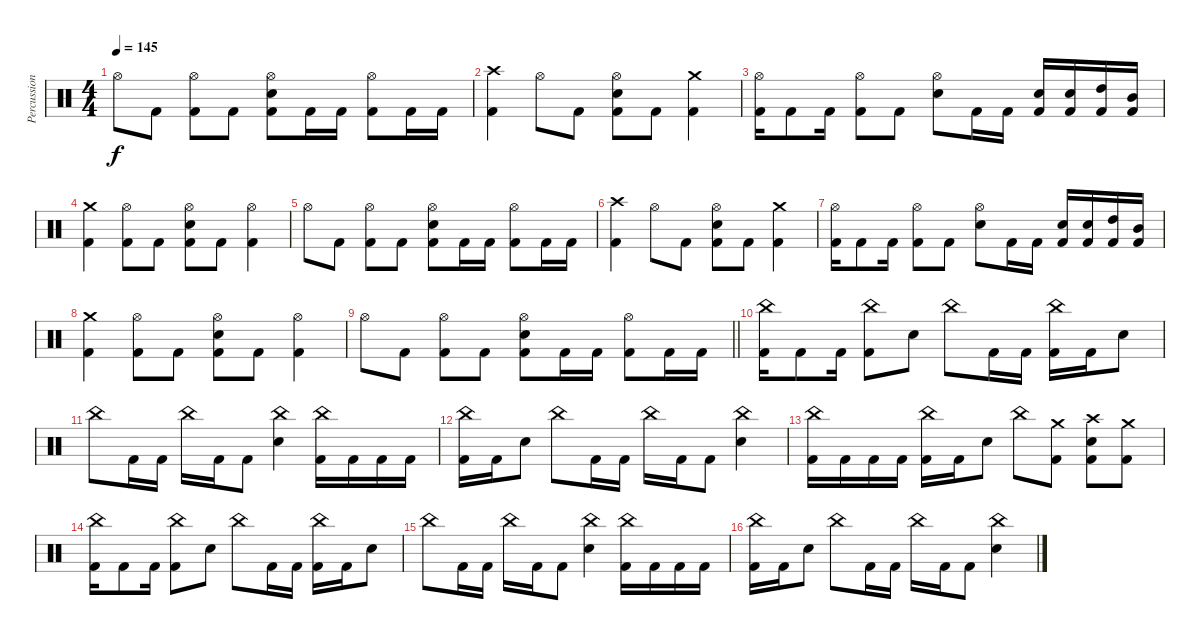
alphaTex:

\track ("Percussions" "Percussion") {instrument percussion}
\staff {score}
\articulation defaults
\ts (4 4)
\tempo 145
\clef neutral
\ks c "Hi-Hat (open)".8{dy f} "Kick (hit) 2".8
("Hi-Hat (open)" "Kick (hit) 2").8 "Kick (hit) 2".8 ("Hi-Hat (open)" "Electric Snare (hit)" "Kick (hit) 2").8 "Kick (hit) 2".16 "Kick (hit) 2".16 ("Hi-Hat (open)" "Kick (hit) 2").8 "Kick (hit) 2".16 "Kick (hit) 2".16 |
("Crash high (hit)" "Kick (hit) 2").4 "Hi-Hat (open)".8 "Kick (hit) 2".8 ("Hi-Hat (open)" "Electric Snare (hit)" "Kick (hit) 2").8 "Kick (hit) 2".8 ("Crash medium (hit)" "Kick (hit) 2").4 |
("Hi-Hat (open)" "Kick (hit) 2").16 "Kick (hit) 2".8 "Kick (hit) 2".16 ("Hi-Hat (open)" "Kick (hit) 2").8 "Kick (hit) 2".8 ("Hi-Hat (open)" "Electric Snare (hit)").8 "Kick (hit) 2".16 "Kick (hit) 2".16 ("Electric Snare (hit)" "Kick (hit) 2").16 ("Electric Snare (hit)" "Kick (hit) 2").16 ("High Tom (hit)" "Kick (hit) 2").16 ("Mid Tom (hit)" "Kick (hit) 2").16 |
("Crash medium (hit)" "Kick (hit) 2").4 ("Hi-Hat (open)" "Kick (hit) 2").8 "Kick (hit) 2".8 ("Hi-Hat (open)" "Electric Snare (hit)" "Kick (hit) 2").8 "Kick (hit) 2".8 ("Hi-Hat (open)" "Kick (hit) 2").4 |
"Hi-Hat (open)".8 "Kick (hit) 2".8 ("Hi-Hat (open)" "Kick (hit) 2").8 "Kick (hit) 2".8 ("Hi-Hat (open)" "Electric Snare (hit)" "Kick (hit) 2").8 "Kick (hit) 2".16 "Kick (hit) 2".16 ("Hi-Hat (open)" "Kick (hit) 2").8 "Kick (hit) 2".16 "Kick (hit) 2".16 |
("Crash high (hit)" "Kick (hit) 2").4 "Hi-Hat (open)".8 "Kick (hit) 2".8 ("Hi-Hat (open)" "Electric Snare (hit)" "Kick (hit) 2").8 "Kick (hit) 2".8 ("Crash medium (hit)" "Kick (hit) 2").4 |
("Hi-Hat (open)" "Kick (hit) 2").16 "Kick (hit) 2".8 "Kick (hit) 2".16 ("Hi-Hat (open)" "Kick (hit) 2").8 "Kick (hit) 2".8 ("Hi-Hat (open)" "Electric Snare (hit)").8 "Kick (hit) 2".16 "Kick (hit) 2".16 ("Electric Snare (hit)" "Kick (hit) 2").16 ("Electric Snare (hit)" "Kick (hit) 2").16 ("High Tom (hit)" "Kick (hit) 2").16 ("Mid Tom (hit)" "Kick (hit) 2").16 |
("Crash medium (hit)" "Kick (hit) 2").4 ("Hi-Hat (open)" "Kick (hit) 2").8 "Kick (hit) 2".8 ("Hi-Hat (open)" "Electric Snare (hit)" "Kick (hit) 2").8 "Kick (hit) 2".8 ("Hi-Hat (open)" "Kick (hit) 2").4 |
\barLineRight lightlight "Hi-Hat (open)".8 "Kick (hit) 2".8
("Hi-Hat (open)" "Kick (hit) 2").8 "Kick (hit) 2".8 ("Hi-Hat (open)" "Electric Snare (hit)" "Kick (hit) 2").8 "Kick (hit) 2".16 "Kick (hit) 2".16 ("Hi-Hat (open)" "Kick (hit) 2").8 "Kick (hit) 2".16 "Kick (hit) 2".16 |
\section ("" "")
("China (hit)" "Kick (hit) 2").16 "Kick (hit) 2".8 "Kick (hit) 2".16 ("China (hit)" "Kick (hit) 2").8 "Electric Snare (hit)".8 "China (hit)".8 "Kick (hit) 2".16 "Kick (hit) 2".16 ("China (hit)" "Kick (hit) 2").16 "Kick (hit) 2".16 "Electric Snare (hit)".8 |
"China (hit)".8 "Kick (hit) 2".16 "Kick (hit) 2".16 "China (hit)".16 "Kick (hit) 2".16 "Kick (hit) 2".8 ("China (hit)" "Electric Snare (hit)").4 ("China (hit)" "Kick (hit) 2").16 "Kick (hit) 2".16 "Kick (hit) 2".16 "Kick (hit) 2".16 |
("China (hit)" "Kick (hit) 2").16 "Kick (hit) 2".16 "Electric Snare (hit)".8 "China (hit)".8 "Kick (hit) 2".16 "Kick (hit) 2".16 "China (hit)".16 "Kick (hit) 2".16 "Kick (hit) 2".8 ("China (hit)" "Electric Snare (hit)").4 |
("China (hit)" "Kick (hit) 2").16 "Kick (hit) 2".16 "Kick (hit) 2".16 "Kick (hit) 2".16 ("China (hit)" "Kick (hit) 2").16 "Kick (hit) 2".16 "Electric Snare (hit)".8 "China (hit)".8 ("Crash medium (hit)" "Kick (hit) 2").8 ("Crash high (hit)" "Electric Snare (hit)" "Kick (hit) 2").8 ("Crash medium (hit)" "Kick (hit) 2").8 |
("China (hit)" "Kick (hit) 2").16 "Kick (hit) 2".8 "Kick (hit) 2".16 ("China (hit)" "Kick (hit) 2").8 "Electric Snare (hit)".8 "China (hit)".8 "Kick (hit) 2".16 "Kick (hit) 2".16 ("China (hit)" "Kick (hit) 2").16 "Kick (hit) 2".16 "Electric Snare (hit)".8 |
"China (hit)".8 "Kick (hit) 2".16 "Kick (hit) 2".16 "China (hit)".16 "Kick (hit) 2".16 "Kick (hit) 2".8 ("China (hit)" "Electric Snare (hit)").4 ("China (hit)" "Kick (hit) 2").16 "Kick (hit) 2".16 "Kick (hit) 2".16 "Kick (hit) 2".16 |
("China (hit)" "Kick (hit) 2").16 "Kick (hit) 2".16 "Electric Snare (hit)".8 "China (hit)".8 "Kick (hit) 2".16 "Kick (hit) 2".16 "China (hit)".16 "Kick (hit) 2".16 "Kick (hit) 2".8 ("China (hit)" "Electric Snare (hit)").4
